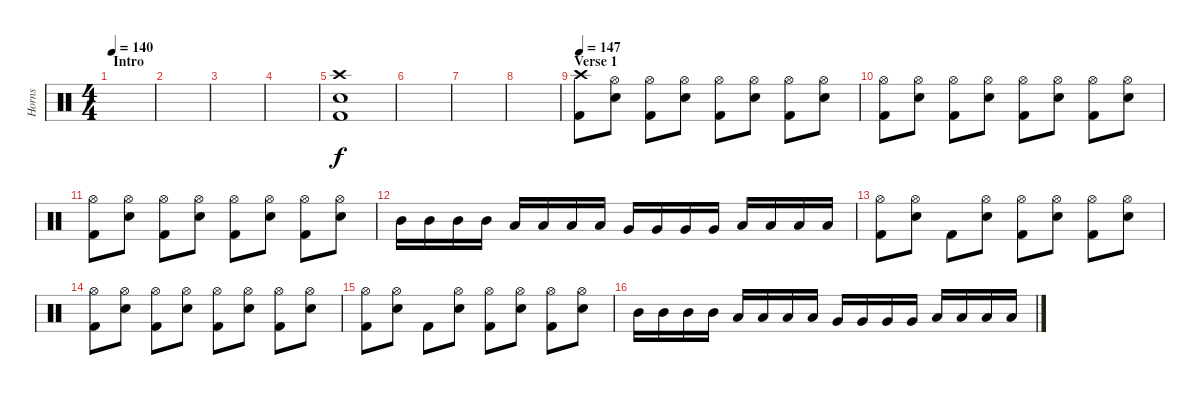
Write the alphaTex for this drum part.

\track ("Horns" "Horns") {instrument percussion}
\staff {score}
\articulation defaults
\ts (4 4)
\section ("" "Intro")
\tempo 140
\clef neutral
\ks c
|
|
|
|
("Crash high (hit)" "Snare (hit) 2" "Kick (hit) 2").1 |
|
|
|
\section ("" "Verse 1")
\tempo 147
("Crash high (hit)" "Kick (hit) 2").8 ("Hi-Hat (open)" "Snare (hit) 2").8 ("Hi-Hat (open)" "Kick (hit) 2").8 ("Hi-Hat (open)" "Snare (hit) 2").8 ("Hi-Hat (open)" "Kick (hit) 2").8 ("Hi-Hat (open)" "Snare (hit) 2").8 ("Hi-Hat (open)" "Kick (hit) 2").8 ("Hi-Hat (open)" "Snare (hit) 2").8 |
("Hi-Hat (open)" "Kick (hit) 2").8 ("Hi-Hat (open)" "Snare (hit) 2").8 ("Hi-Hat (open)" "Kick (hit) 2").8 ("Hi-Hat (open)" "Snare (hit) 2").8 ("Hi-Hat (open)" "Kick (hit) 2").8 ("Hi-Hat (open)" "Snare (hit) 2").8 ("Hi-Hat (open)" "Kick (hit) 2").8 ("Hi-Hat (open)" "Snare (hit) 2").8 |
("Hi-Hat (open)" "Kick (hit) 2").8 ("Hi-Hat (open)" "Snare (hit) 2").8 ("Hi-Hat (open)" "Kick (hit) 2").8 ("Hi-Hat (open)" "Snare (hit) 2").8 ("Hi-Hat (open)" "Kick (hit) 2").8 ("Hi-Hat (open)" "Snare (hit) 2").8 ("Hi-Hat (open)" "Kick (hit) 2").8 ("Hi-Hat (open)" "Snare (hit) 2").8 |
"Mid Tom (hit)".16 "Mid Tom (hit)".16 "Mid Tom (hit)".16 "Mid Tom (hit)".16 "Low Tom (hit)".16 "Low Tom (hit)".16 "Low Tom (hit)".16 "Low Tom (hit)".16 "Very Low Tom (hit)".16 "Very Low Tom (hit)".16 "Very Low Tom (hit)".16 "Very Low Tom (hit)".16 "Low Floor Tom (hit)".16 "Low Floor Tom (hit)".16 "Low Floor Tom (hit)".16 "Low Floor Tom (hit)".16 |
("Hi-Hat (open)" "Kick (hit) 2").8 ("Hi-Hat (open)" "Snare (hit) 2").8 "Kick (hit) 2".8 ("Hi-Hat (open)" "Snare (hit) 2").8 ("Hi-Hat (open)" "Kick (hit) 2").8 ("Hi-Hat (open)" "Snare (hit) 2").8 ("Hi-Hat (open)" "Kick (hit) 2").8 ("Hi-Hat (open)" "Snare (hit) 2").8 |
("Hi-Hat (open)" "Kick (hit) 2").8 ("Hi-Hat (open)" "Snare (hit) 2").8 ("Hi-Hat (open)" "Kick (hit) 2").8 ("Hi-Hat (open)" "Snare (hit) 2").8 ("Hi-Hat (open)" "Kick (hit) 2").8 ("Hi-Hat (open)" "Snare (hit) 2").8 ("Hi-Hat (open)" "Kick (hit) 2").8 ("Hi-Hat (open)" "Snare (hit) 2").8 |
("Hi-Hat (open)" "Kick (hit) 2").8 ("Hi-Hat (open)" "Snare (hit) 2").8 "Kick (hit) 2".8 ("Hi-Hat (open)" "Snare (hit) 2").8 ("Hi-Hat (open)" "Kick (hit) 2").8 ("Hi-Hat (open)" "Snare (hit) 2").8 ("Hi-Hat (open)" "Kick (hit) 2").8 ("Hi-Hat (open)" "Snare (hit) 2").8 |
"Mid Tom (hit)".16 "Mid Tom (hit)".16 "Mid Tom (hit)".16 "Mid Tom (hit)".16 "Low Tom (hit)".16 "Low Tom (hit)".16 "Low Tom (hit)".16 "Low Tom (hit)".16 "Very Low Tom (hit)".16 "Very Low Tom (hit)".16 "Very Low Tom (hit)".16 "Very Low Tom (hit)".16 "Low Floor Tom (hit)".16 "Low Floor Tom (hit)".16 "Low Floor Tom (hit)".16 "Low Floor Tom (hit)".16
